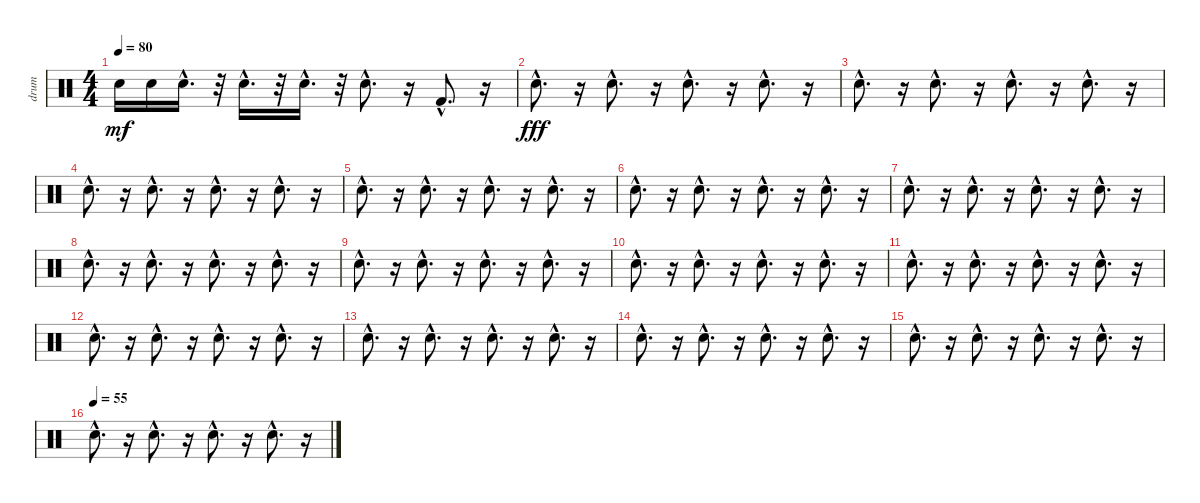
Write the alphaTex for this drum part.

\track ("drum" "drum") {instrument percussion}
\staff {score}
\articulation defaults
\ts (4 4)
\tempo 80
\clef neutral
\ks c "Electric Snare (hit)".16{dy mf} "Snare (hit) 2".16 "Electric Snare (hit)"{hac}.16{d}
r.32 "Electric Snare (hit)"{hac}.16{d} r.32 "Snare (hit) 2"{hac}.16{d} r.32 "Electric Snare (hit)"{hac}.8{d} r.16 "Kick (hit) 2"{hac}.8{d} r.16 |
"Electric Snare (hit)"{hac}.8{d dy fff} r.16 "Snare (hit) 2"{hac}.8{d} r.16 "Electric Snare (hit)"{hac}.8{d} r.16 "Snare (hit) 2"{hac}.8{d} r.16 |
"Electric Snare (hit)"{hac}.8{d} r.16 "Snare (hit) 2"{hac}.8{d} r.16 "Electric Snare (hit)"{hac}.8{d} r.16 "Snare (hit) 2"{hac}.8{d} r.16 |
"Electric Snare (hit)"{hac}.8{d} r.16 "Snare (hit) 2"{hac}.8{d} r.16 "Electric Snare (hit)"{hac}.8{d} r.16 "Snare (hit) 2"{hac}.8{d} r.16 |
"Electric Snare (hit)"{hac}.8{d} r.16 "Snare (hit) 2"{hac}.8{d} r.16 "Electric Snare (hit)"{hac}.8{d} r.16 "Snare (hit) 2"{hac}.8{d} r.16 |
"Electric Snare (hit)"{hac}.8{d} r.16 "Snare (hit) 2"{hac}.8{d} r.16 "Electric Snare (hit)"{hac}.8{d} r.16 "Snare (hit) 2"{hac}.8{d} r.16 |
"Electric Snare (hit)"{hac}.8{d} r.16 "Snare (hit) 2"{hac}.8{d} r.16 "Electric Snare (hit)"{hac}.8{d} r.16 "Snare (hit) 2"{hac}.8{d} r.16 |
"Electric Snare (hit)"{hac}.8{d} r.16 "Snare (hit) 2"{hac}.8{d} r.16 "Electric Snare (hit)"{hac}.8{d} r.16 "Snare (hit) 2"{hac}.8{d} r.16 |
"Electric Snare (hit)"{hac}.8{d} r.16 "Snare (hit) 2"{hac}.8{d} r.16 "Electric Snare (hit)"{hac}.8{d} r.16 "Snare (hit) 2"{hac}.8{d} r.16 |
"Electric Snare (hit)"{hac}.8{d} r.16 "Snare (hit) 2"{hac}.8{d} r.16 "Electric Snare (hit)"{hac}.8{d} r.16 "Snare (hit) 2"{hac}.8{d} r.16 |
"Electric Snare (hit)"{hac}.8{d} r.16 "Snare (hit) 2"{hac}.8{d} r.16 "Electric Snare (hit)"{hac}.8{d} r.16 "Snare (hit) 2"{hac}.8{d} r.16 |
"Electric Snare (hit)"{hac}.8{d} r.16 "Snare (hit) 2"{hac}.8{d} r.16 "Electric Snare (hit)"{hac}.8{d} r.16 "Snare (hit) 2"{hac}.8{d} r.16 |
"Electric Snare (hit)"{hac}.8{d} r.16 "Snare (hit) 2"{hac}.8{d} r.16 "Electric Snare (hit)"{hac}.8{d} r.16 "Snare (hit) 2"{hac}.8{d} r.16 |
"Electric Snare (hit)"{hac}.8{d} r.16 "Snare (hit) 2"{hac}.8{d} r.16 "Electric Snare (hit)"{hac}.8{d} r.16 "Snare (hit) 2"{hac}.8{d} r.16 |
"Electric Snare (hit)"{hac}.8{d} r.16 "Snare (hit) 2"{hac}.8{d} r.16 "Electric Snare (hit)"{hac}.8{d} r.16 "Snare (hit) 2"{hac}.8{d} r.16 |
\tempo (55)
"Electric Snare (hit)"{hac}.8{d} r.16 "Snare (hit) 2"{hac}.8{d} r.16 "Electric Snare (hit)"{hac}.8{d} r.16 "Snare (hit) 2"{hac}.8{d} r.16
